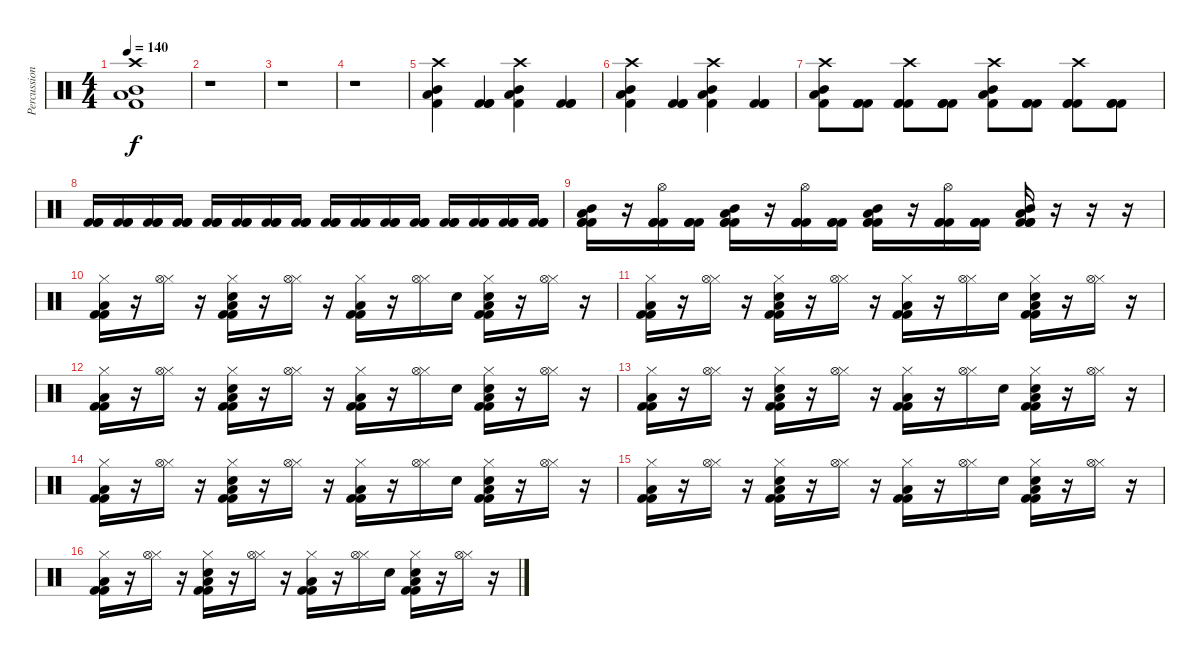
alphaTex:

\track ("Percussion" "Percussion") {instrument percussion}
\staff {score}
\articulation defaults
\ts (4 4)
\tempo 140
\clef neutral
\ks c
("Crash high (hit)" "Low Floor Tom (hit)" "Mid Tom (hit)" "Kick (hit) 2").1{dy f} |
r.1 |
r.1 |
r.1 |
("Crash high (hit)" "Low Floor Tom (hit)" "Mid Tom (hit)" "Kick (hit) 2").4 ("Kick (hit) 2" "Kick (hit) 2" "Kick (hit) 2").4 ("Crash high (hit)" "Low Floor Tom (hit)" "Mid Tom (hit)" "Kick (hit) 2").4 ("Kick (hit) 2" "Kick (hit) 2" "Kick (hit) 2").4 |
("Crash high (hit)" "Low Floor Tom (hit)" "Mid Tom (hit)" "Kick (hit) 2").4 ("Kick (hit) 2" "Kick (hit) 2" "Kick (hit) 2").4 ("Crash high (hit)" "Low Floor Tom (hit)" "Mid Tom (hit)" "Kick (hit) 2").4 ("Kick (hit) 2" "Kick (hit) 2" "Kick (hit) 2").4 |
("Crash high (hit)" "Low Floor Tom (hit)" "Mid Tom (hit)" "Kick (hit) 2").8 ("Kick (hit) 2" "Kick (hit) 2" "Kick (hit) 2").8 ("Crash high (hit)" "Kick (hit) 2" "Kick (hit) 2" "Kick (hit) 2").8 ("Kick (hit) 2" "Kick (hit) 2" "Kick (hit) 2").8 ("Crash high (hit)" "Low Floor Tom (hit)" "Mid Tom (hit)" "Kick (hit) 2").8 ("Kick (hit) 2" "Kick (hit) 2" "Kick (hit) 2").8 ("Crash high (hit)" "Kick (hit) 2" "Kick (hit) 2" "Kick (hit) 2").8 ("Kick (hit) 2" "Kick (hit) 2" "Kick (hit) 2").8 |
("Kick (hit) 2" "Kick (hit) 2" "Kick (hit) 2").16 ("Kick (hit) 2" "Kick (hit) 2" "Kick (hit) 2").16 ("Kick (hit) 2" "Kick (hit) 2" "Kick (hit) 2").16 ("Kick (hit) 2" "Kick (hit) 2" "Kick (hit) 2").16 ("Kick (hit) 2" "Kick (hit) 2" "Kick (hit) 2").16 ("Kick (hit) 2" "Kick (hit) 2" "Kick (hit) 2").16 ("Kick (hit) 2" "Kick (hit) 2" "Kick (hit) 2").16 ("Kick (hit) 2" "Kick (hit) 2" "Kick (hit) 2").16 ("Kick (hit) 2" "Kick (hit) 2" "Kick (hit) 2").16 ("Kick (hit) 2" "Kick (hit) 2" "Kick (hit) 2").16 ("Kick (hit) 2" "Kick (hit) 2" "Kick (hit) 2").16 ("Kick (hit) 2" "Kick (hit) 2" "Kick (hit) 2").16 ("Kick (hit) 2" "Kick (hit) 2" "Kick (hit) 2").16 ("Kick (hit) 2" "Kick (hit) 2" "Kick (hit) 2").16 ("Kick (hit) 2" "Kick (hit) 2" "Kick (hit) 2").16 ("Kick (hit) 2" "Kick (hit) 2" "Kick (hit) 2").16 |
("Mid Tom (hit)" "Kick (hit) 2" "Kick (hit) 2" "Kick (hit) 2" "Low Floor Tom (hit)").16 r.16 ("Kick (hit) 2" "Kick (hit) 2" "Kick (hit) 2" "Hi-Hat (open)").16 ("Kick (hit) 2" "Kick (hit) 2" "Kick (hit) 2").16 ("Mid Tom (hit)" "Kick (hit) 2" "Kick (hit) 2" "Kick (hit) 2" "Low Floor Tom (hit)").16 r.16 ("Kick (hit) 2" "Kick (hit) 2" "Kick (hit) 2" "Hi-Hat (open)").16 ("Kick (hit) 2" "Kick (hit) 2" "Kick (hit) 2").16 ("Mid Tom (hit)" "Kick (hit) 2" "Kick (hit) 2" "Kick (hit) 2" "Low Floor Tom (hit)").16 r.16 ("Kick (hit) 2" "Kick (hit) 2" "Kick (hit) 2" "Hi-Hat (open)").16 ("Kick (hit) 2" "Kick (hit) 2" "Kick (hit) 2").16 ("Mid Tom (hit)" "Kick (hit) 2" "Kick (hit) 2" "Kick (hit) 2" "Low Floor Tom (hit)").16 r.16 r.16 r.16 |
("Hi-Hat (closed)" "Low Tom (hit)" "Kick (hit) 2" "Kick (hit) 2").16 r.16 ("Hi-Hat (closed)" "Hi-Hat (open)").16 r.16 ("Hi-Hat (closed)" "Low Tom (hit)" "Kick (hit) 2" "Kick (hit) 2" "Hand Clap (hit)").16 r.16 ("Hi-Hat (closed)" "Hi-Hat (open)").16 r.16 ("Hi-Hat (closed)" "Low Tom (hit)" "Kick (hit) 2" "Kick (hit) 2").16 r.16 ("Hi-Hat (closed)" "Hi-Hat (open)").16 "Hand Clap (hit)".16 ("Hi-Hat (closed)" "Low Tom (hit)" "Kick (hit) 2" "Kick (hit) 2" "Hand Clap (hit)").16 r.16 ("Hi-Hat (closed)" "Hi-Hat (open)").16 r.16 |
("Hi-Hat (closed)" "Low Tom (hit)" "Kick (hit) 2" "Kick (hit) 2").16 r.16 ("Hi-Hat (closed)" "Hi-Hat (open)").16 r.16 ("Hi-Hat (closed)" "Low Tom (hit)" "Kick (hit) 2" "Kick (hit) 2" "Hand Clap (hit)").16 r.16 ("Hi-Hat (closed)" "Hi-Hat (open)").16 r.16 ("Hi-Hat (closed)" "Low Tom (hit)" "Kick (hit) 2" "Kick (hit) 2").16 r.16 ("Hi-Hat (closed)" "Hi-Hat (open)").16 "Hand Clap (hit)".16 ("Hi-Hat (closed)" "Low Tom (hit)" "Kick (hit) 2" "Kick (hit) 2" "Hand Clap (hit)").16 r.16 ("Hi-Hat (closed)" "Hi-Hat (open)").16 r.16 |
("Hi-Hat (closed)" "Low Tom (hit)" "Kick (hit) 2" "Kick (hit) 2").16 r.16 ("Hi-Hat (closed)" "Hi-Hat (open)").16 r.16 ("Hi-Hat (closed)" "Low Tom (hit)" "Kick (hit) 2" "Kick (hit) 2" "Hand Clap (hit)").16 r.16 ("Hi-Hat (closed)" "Hi-Hat (open)").16 r.16 ("Hi-Hat (closed)" "Low Tom (hit)" "Kick (hit) 2" "Kick (hit) 2").16 r.16 ("Hi-Hat (closed)" "Hi-Hat (open)").16 "Hand Clap (hit)".16 ("Hi-Hat (closed)" "Low Tom (hit)" "Kick (hit) 2" "Kick (hit) 2" "Hand Clap (hit)").16 r.16 ("Hi-Hat (closed)" "Hi-Hat (open)").16 r.16 |
("Hi-Hat (closed)" "Low Tom (hit)" "Kick (hit) 2" "Kick (hit) 2").16 r.16 ("Hi-Hat (closed)" "Hi-Hat (open)").16 r.16 ("Hi-Hat (closed)" "Low Tom (hit)" "Kick (hit) 2" "Kick (hit) 2" "Hand Clap (hit)").16 r.16 ("Hi-Hat (closed)" "Hi-Hat (open)").16 r.16 ("Hi-Hat (closed)" "Low Tom (hit)" "Kick (hit) 2" "Kick (hit) 2").16 r.16 ("Hi-Hat (closed)" "Hi-Hat (open)").16 "Hand Clap (hit)".16 ("Hi-Hat (closed)" "Low Tom (hit)" "Kick (hit) 2" "Kick (hit) 2" "Hand Clap (hit)").16 r.16 ("Hi-Hat (closed)" "Hi-Hat (open)").16 r.16 |
("Hi-Hat (closed)" "Low Tom (hit)" "Kick (hit) 2" "Kick (hit) 2").16 r.16 ("Hi-Hat (closed)" "Hi-Hat (open)").16 r.16 ("Hi-Hat (closed)" "Low Tom (hit)" "Kick (hit) 2" "Kick (hit) 2" "Hand Clap (hit)").16 r.16 ("Hi-Hat (closed)" "Hi-Hat (open)").16 r.16 ("Hi-Hat (closed)" "Low Tom (hit)" "Kick (hit) 2" "Kick (hit) 2").16 r.16 ("Hi-Hat (closed)" "Hi-Hat (open)").16 "Hand Clap (hit)".16 ("Hi-Hat (closed)" "Low Tom (hit)" "Kick (hit) 2" "Kick (hit) 2" "Hand Clap (hit)").16 r.16 ("Hi-Hat (closed)" "Hi-Hat (open)").16 r.16 |
("Hi-Hat (closed)" "Low Tom (hit)" "Kick (hit) 2" "Kick (hit) 2").16 r.16 ("Hi-Hat (closed)" "Hi-Hat (open)").16 r.16 ("Hi-Hat (closed)" "Low Tom (hit)" "Kick (hit) 2" "Kick (hit) 2" "Hand Clap (hit)").16 r.16 ("Hi-Hat (closed)" "Hi-Hat (open)").16 r.16 ("Hi-Hat (closed)" "Low Tom (hit)" "Kick (hit) 2" "Kick (hit) 2").16 r.16 ("Hi-Hat (closed)" "Hi-Hat (open)").16 "Hand Clap (hit)".16 ("Hi-Hat (closed)" "Low Tom (hit)" "Kick (hit) 2" "Kick (hit) 2" "Hand Clap (hit)").16 r.16 ("Hi-Hat (closed)" "Hi-Hat (open)").16 r.16 |
("Hi-Hat (closed)" "Low Tom (hit)" "Kick (hit) 2" "Kick (hit) 2").16 r.16 ("Hi-Hat (closed)" "Hi-Hat (open)").16 r.16 ("Hi-Hat (closed)" "Low Tom (hit)" "Kick (hit) 2" "Kick (hit) 2" "Hand Clap (hit)").16 r.16 ("Hi-Hat (closed)" "Hi-Hat (open)").16 r.16 ("Hi-Hat (closed)" "Low Tom (hit)" "Kick (hit) 2" "Kick (hit) 2").16 r.16 ("Hi-Hat (closed)" "Hi-Hat (open)").16 "Hand Clap (hit)".16 ("Hi-Hat (closed)" "Low Tom (hit)" "Kick (hit) 2" "Kick (hit) 2" "Hand Clap (hit)").16 r.16 ("Hi-Hat (closed)" "Hi-Hat (open)").16 r.16
